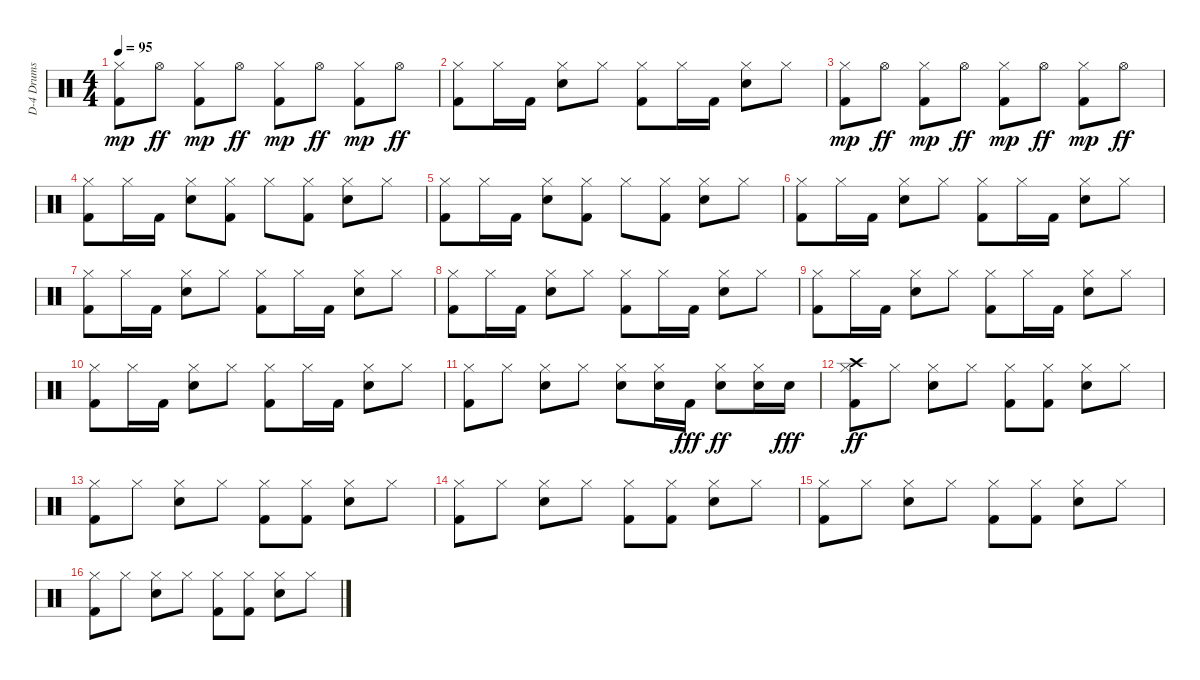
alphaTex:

\track ("D-4 Drums" "D-4 Drums") {instrument percussion}
\staff {score}
\articulation defaults
\ts (4 4)
\tempo 95
\clef neutral
\ks c
("Kick (hit) 2" "Hi-Hat (closed)").8{dy mp} "Hi-Hat (open)".8{dy ff} ("Kick (hit) 2" "Hi-Hat (closed)").8{dy mp} "Hi-Hat (open)".8{dy ff} ("Kick (hit) 2" "Hi-Hat (closed)").8{dy mp} "Hi-Hat (open)".8{dy ff} ("Kick (hit) 2" "Hi-Hat (closed)").8{dy mp} "Hi-Hat (open)".8{dy ff} |
("Kick (hit) 2" "Hi-Hat (closed)").8 "Hi-Hat (closed)".16 "Kick (hit) 2".16 ("Snare (hit) 2" "Hi-Hat (closed)").8 "Hi-Hat (closed)".8 ("Kick (hit) 2" "Hi-Hat (closed)").8 "Hi-Hat (closed)".16 "Kick (hit) 2".16 ("Snare (hit) 2" "Hi-Hat (closed)").8 "Hi-Hat (closed)".8 |
("Kick (hit) 2" "Hi-Hat (closed)").8{dy mp} "Hi-Hat (open)".8{dy ff} ("Kick (hit) 2" "Hi-Hat (closed)").8{dy mp} "Hi-Hat (open)".8{dy ff} ("Kick (hit) 2" "Hi-Hat (closed)").8{dy mp} "Hi-Hat (open)".8{dy ff} ("Kick (hit) 2" "Hi-Hat (closed)").8{dy mp} "Hi-Hat (open)".8{dy ff} |
("Kick (hit) 2" "Hi-Hat (closed)").8 "Hi-Hat (closed)".16 "Kick (hit) 2".16 ("Snare (hit) 2" "Hi-Hat (closed)").8 ("Kick (hit) 2" "Hi-Hat (closed)").8 "Hi-Hat (closed)".8 ("Kick (hit) 2" "Hi-Hat (closed)").8 ("Snare (hit) 2" "Hi-Hat (closed)").8 "Hi-Hat (closed)".8 |
("Kick (hit) 2" "Hi-Hat (closed)").8 "Hi-Hat (closed)".16 "Kick (hit) 2".16 ("Snare (hit) 2" "Hi-Hat (closed)").8 ("Kick (hit) 2" "Hi-Hat (closed)").8 "Hi-Hat (closed)".8 ("Kick (hit) 2" "Hi-Hat (closed)").8 ("Snare (hit) 2" "Hi-Hat (closed)").8 "Hi-Hat (closed)".8 |
("Kick (hit) 2" "Hi-Hat (closed)").8 "Hi-Hat (closed)".16 "Kick (hit) 2".16 ("Snare (hit) 2" "Hi-Hat (closed)").8 "Hi-Hat (closed)".8 ("Kick (hit) 2" "Hi-Hat (closed)").8 "Hi-Hat (closed)".16 "Kick (hit) 2".16 ("Snare (hit) 2" "Hi-Hat (closed)").8 "Hi-Hat (closed)".8 |
("Kick (hit) 2" "Hi-Hat (closed)").8 "Hi-Hat (closed)".16 "Kick (hit) 2".16 ("Snare (hit) 2" "Hi-Hat (closed)").8 "Hi-Hat (closed)".8 ("Kick (hit) 2" "Hi-Hat (closed)").8 "Hi-Hat (closed)".16 "Kick (hit) 2".16 ("Snare (hit) 2" "Hi-Hat (closed)").8 "Hi-Hat (closed)".8 |
("Kick (hit) 2" "Hi-Hat (closed)").8 "Hi-Hat (closed)".16 "Kick (hit) 2".16 ("Snare (hit) 2" "Hi-Hat (closed)").8 "Hi-Hat (closed)".8 ("Kick (hit) 2" "Hi-Hat (closed)").8 "Hi-Hat (closed)".16 "Kick (hit) 2".16 ("Snare (hit) 2" "Hi-Hat (closed)").8 "Hi-Hat (closed)".8 |
("Kick (hit) 2" "Hi-Hat (closed)").8 "Hi-Hat (closed)".16 "Kick (hit) 2".16 ("Snare (hit) 2" "Hi-Hat (closed)").8 "Hi-Hat (closed)".8 ("Kick (hit) 2" "Hi-Hat (closed)").8 "Hi-Hat (closed)".16 "Kick (hit) 2".16 ("Snare (hit) 2" "Hi-Hat (closed)").8 "Hi-Hat (closed)".8 |
("Kick (hit) 2" "Hi-Hat (closed)").8 "Hi-Hat (closed)".16 "Kick (hit) 2".16 ("Snare (hit) 2" "Hi-Hat (closed)").8 "Hi-Hat (closed)".8 ("Kick (hit) 2" "Hi-Hat (closed)").8 "Hi-Hat (closed)".16 "Kick (hit) 2".16 ("Snare (hit) 2" "Hi-Hat (closed)").8 "Hi-Hat (closed)".8 |
("Kick (hit) 2" "Hi-Hat (closed)").8 "Hi-Hat (closed)".8 ("Snare (hit) 2" "Hi-Hat (closed)").8 "Hi-Hat (closed)".8 ("Snare (hit) 2" "Hi-Hat (closed)").8 ("Snare (hit) 2" "Hi-Hat (closed)").16 "Kick (hit) 2".16{dy fff} ("Snare (hit) 2" "Hi-Hat (closed)").8{dy ff} ("Snare (hit) 2" "Hi-Hat (closed)").16 "Snare (hit) 2".16{dy fff} |
("Kick (hit) 2" "Hi-Hat (closed)" "Crash high (hit)").8{dy ff} "Hi-Hat (closed)".8 ("Snare (hit) 2" "Hi-Hat (closed)").8 "Hi-Hat (closed)".8 ("Kick (hit) 2" "Hi-Hat (closed)").8 ("Kick (hit) 2" "Hi-Hat (closed)").8 ("Snare (hit) 2" "Hi-Hat (closed)").8 "Hi-Hat (closed)".8 |
("Kick (hit) 2" "Hi-Hat (closed)").8 "Hi-Hat (closed)".8 ("Snare (hit) 2" "Hi-Hat (closed)").8 "Hi-Hat (closed)".8 ("Kick (hit) 2" "Hi-Hat (closed)").8 ("Kick (hit) 2" "Hi-Hat (closed)").8 ("Snare (hit) 2" "Hi-Hat (closed)").8 "Hi-Hat (closed)".8 |
("Kick (hit) 2" "Hi-Hat (closed)").8 "Hi-Hat (closed)".8 ("Snare (hit) 2" "Hi-Hat (closed)").8 "Hi-Hat (closed)".8 ("Kick (hit) 2" "Hi-Hat (closed)").8 ("Kick (hit) 2" "Hi-Hat (closed)").8 ("Snare (hit) 2" "Hi-Hat (closed)").8 "Hi-Hat (closed)".8 |
("Kick (hit) 2" "Hi-Hat (closed)").8 "Hi-Hat (closed)".8 ("Snare (hit) 2" "Hi-Hat (closed)").8 "Hi-Hat (closed)".8 ("Kick (hit) 2" "Hi-Hat (closed)").8 ("Kick (hit) 2" "Hi-Hat (closed)").8 ("Snare (hit) 2" "Hi-Hat (closed)").8 "Hi-Hat (closed)".8 |
("Kick (hit) 2" "Hi-Hat (closed)").8 "Hi-Hat (closed)".8 ("Snare (hit) 2" "Hi-Hat (closed)").8 "Hi-Hat (closed)".8 ("Kick (hit) 2" "Hi-Hat (closed)").8 ("Kick (hit) 2" "Hi-Hat (closed)").8 ("Snare (hit) 2" "Hi-Hat (closed)").8 "Hi-Hat (closed)".8
